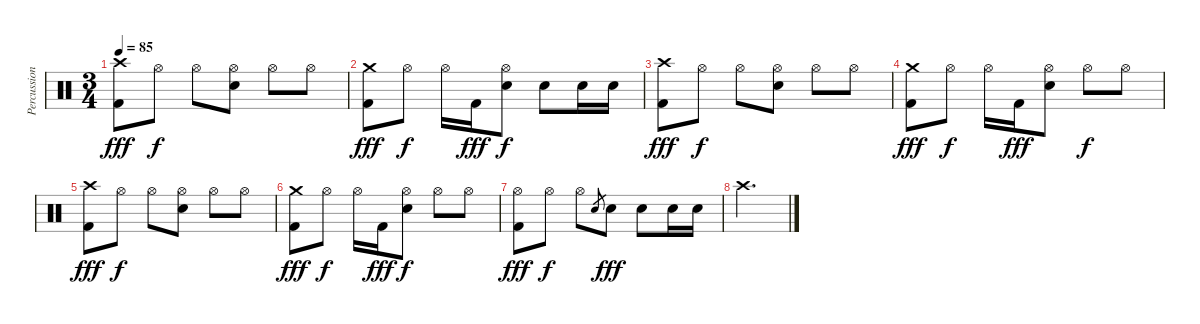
\track ("Percussion" "Percussion") {instrument percussion}
\staff {score}
\articulation defaults
\ts (3 4)
\tempo 85
\clef neutral
\ks c
("Crash high (hit)" "Kick (hit) 2").8{dy fff} "Hi-Hat (open)".8{dy f} "Hi-Hat (open)".8 ("Snare (hit) 2" "Hi-Hat (open)").8 "Hi-Hat (open)".8 "Hi-Hat (open)".8 |
("Crash medium (hit)" "Kick (hit) 2").8{dy fff} "Hi-Hat (open)".8{dy f} "Hi-Hat (open)".16 "Kick (hit) 2".16{dy fff} ("Snare (hit) 2" "Hi-Hat (open)").8{dy f} "Snare (hit) 2".8 "Snare (hit) 2".16 "Snare (hit) 2".16 |
("Crash high (hit)" "Kick (hit) 2").8{dy fff} "Hi-Hat (open)".8{dy f} "Hi-Hat (open)".8 ("Snare (hit) 2" "Hi-Hat (open)").8 "Hi-Hat (open)".8 "Hi-Hat (open)".8 |
("Crash medium (hit)" "Kick (hit) 2").8{dy fff} "Hi-Hat (open)".8{dy f} "Hi-Hat (open)".16 "Kick (hit) 2".16{dy fff} ("Snare (hit) 2" "Hi-Hat (open)").8 "Hi-Hat (open)".8{dy f} "Hi-Hat (open)".8 |
("Crash high (hit)" "Kick (hit) 2").8{dy fff} "Hi-Hat (open)".8{dy f} "Hi-Hat (open)".8 ("Snare (hit) 2" "Hi-Hat (open)").8 "Hi-Hat (open)".8 "Hi-Hat (open)".8 |
("Crash medium (hit)" "Kick (hit) 2").8{dy fff} "Hi-Hat (open)".8{dy f} "Hi-Hat (open)".16 "Kick (hit) 2".16{dy fff} ("Snare (hit) 2" "Hi-Hat (open)").8{dy f} "Hi-Hat (open)".8 "Hi-Hat (open)".8 |
("Hi-Hat (open)" "Kick (hit) 2").8{dy fff} "Hi-Hat (open)".8{dy f} "Hi-Hat (open)".8 "Snare (hit) 2".8{gr} "Snare (hit) 2".8{dy fff} "Snare (hit) 2".8 "Snare (hit) 2".16 "Snare (hit) 2".16 |
"Crash high (hit)".2{d}
